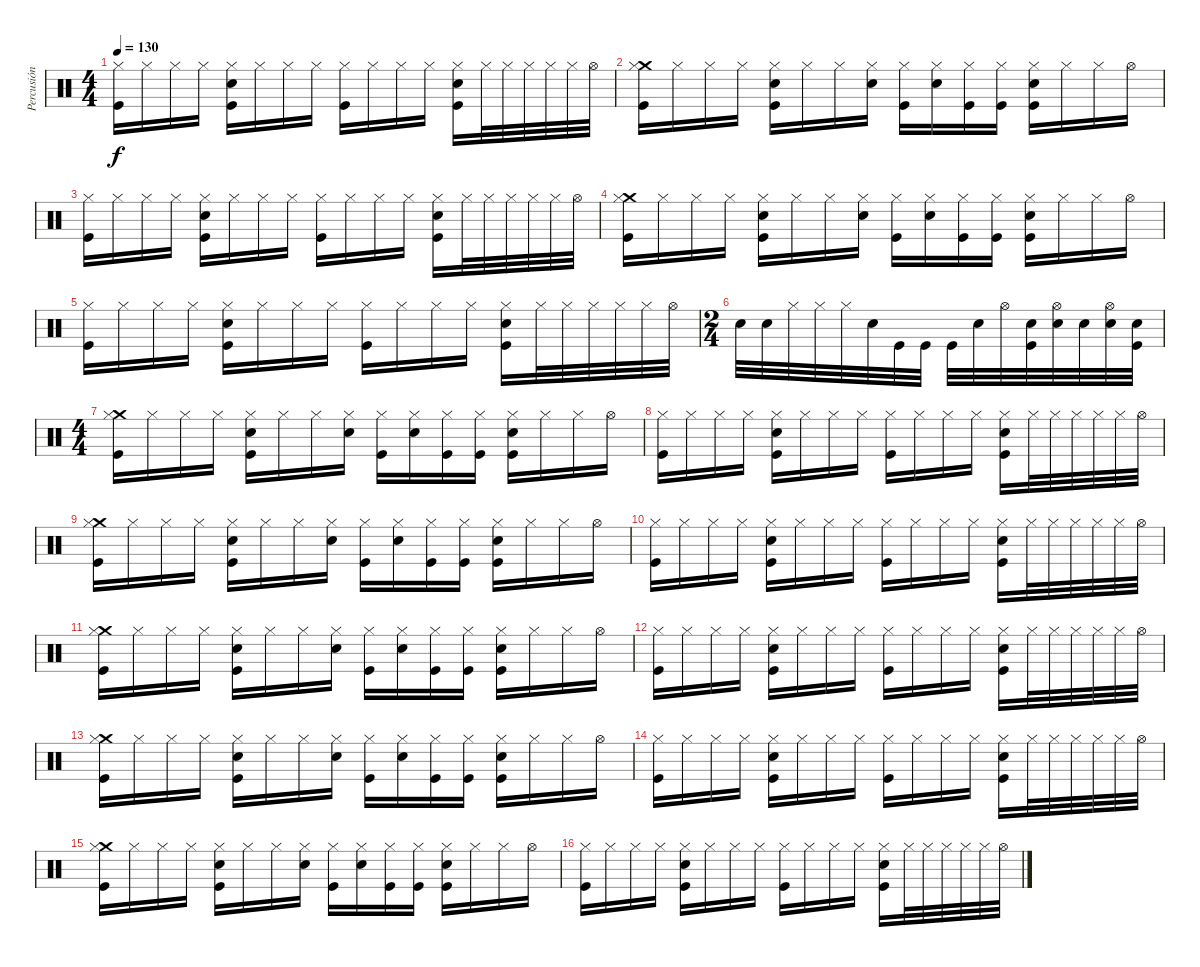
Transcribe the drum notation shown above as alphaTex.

\track ("Percusión" "Percusión") {instrument percussion}
\staff {score}
\articulation defaults
\ts (4 4)
\tempo 130
\clef neutral
\ks c
("Kick (hit)" "Hi-Hat (closed)").16{dy f} "Hi-Hat (closed)".16 "Hi-Hat (closed)".16 "Hi-Hat (closed)".16 ("Kick (hit)" "Snare (hit) 2" "Hi-Hat (closed)").16 "Hi-Hat (closed)".16 "Hi-Hat (closed)".16 "Hi-Hat (closed)".16 ("Kick (hit)" "Hi-Hat (closed)").16 "Hi-Hat (closed)".16 "Hi-Hat (closed)".16 "Hi-Hat (closed)".16 ("Kick (hit)" "Snare (hit) 2" "Hi-Hat (closed)").16 "Hi-Hat (closed)".32 "Hi-Hat (closed)".32 "Hi-Hat (closed)".32 "Hi-Hat (closed)".32 "Hi-Hat (closed)".32 "Hi-Hat (open)".32 |
("Kick (hit)" "Crash medium (hit)" "Hi-Hat (closed)").16 "Hi-Hat (closed)".16 "Hi-Hat (closed)".16 "Hi-Hat (closed)".16 ("Kick (hit)" "Snare (hit) 2" "Hi-Hat (closed)").16 "Hi-Hat (closed)".16 "Hi-Hat (closed)".16 ("Snare (hit) 2" "Hi-Hat (closed)").16 ("Kick (hit)" "Hi-Hat (closed)").16 ("Snare (hit) 2" "Hi-Hat (closed)").16 ("Kick (hit)" "Hi-Hat (closed)").16 ("Kick (hit)" "Hi-Hat (closed)").16 ("Kick (hit)" "Snare (hit) 2" "Hi-Hat (closed)").16 "Hi-Hat (closed)".16 "Hi-Hat (closed)".16 "Hi-Hat (open)".16 |
("Kick (hit)" "Hi-Hat (closed)").16 "Hi-Hat (closed)".16 "Hi-Hat (closed)".16 "Hi-Hat (closed)".16 ("Kick (hit)" "Snare (hit) 2" "Hi-Hat (closed)").16 "Hi-Hat (closed)".16 "Hi-Hat (closed)".16 "Hi-Hat (closed)".16 ("Kick (hit)" "Hi-Hat (closed)").16 "Hi-Hat (closed)".16 "Hi-Hat (closed)".16 "Hi-Hat (closed)".16 ("Kick (hit)" "Snare (hit) 2" "Hi-Hat (closed)").16 "Hi-Hat (closed)".32 "Hi-Hat (closed)".32 "Hi-Hat (closed)".32 "Hi-Hat (closed)".32 "Hi-Hat (closed)".32 "Hi-Hat (open)".32 |
("Kick (hit)" "Crash medium (hit)" "Hi-Hat (closed)").16 "Hi-Hat (closed)".16 "Hi-Hat (closed)".16 "Hi-Hat (closed)".16 ("Kick (hit)" "Snare (hit) 2" "Hi-Hat (closed)").16 "Hi-Hat (closed)".16 "Hi-Hat (closed)".16 ("Snare (hit) 2" "Hi-Hat (closed)").16 ("Kick (hit)" "Hi-Hat (closed)").16 ("Snare (hit) 2" "Hi-Hat (closed)").16 ("Kick (hit)" "Hi-Hat (closed)").16 ("Kick (hit)" "Hi-Hat (closed)").16 ("Kick (hit)" "Snare (hit) 2" "Hi-Hat (closed)").16 "Hi-Hat (closed)".16 "Hi-Hat (closed)".16 "Hi-Hat (open)".16 |
("Kick (hit)" "Hi-Hat (closed)").16 "Hi-Hat (closed)".16 "Hi-Hat (closed)".16 "Hi-Hat (closed)".16 ("Kick (hit)" "Snare (hit) 2" "Hi-Hat (closed)").16 "Hi-Hat (closed)".16 "Hi-Hat (closed)".16 "Hi-Hat (closed)".16 ("Kick (hit)" "Hi-Hat (closed)").16 "Hi-Hat (closed)".16 "Hi-Hat (closed)".16 "Hi-Hat (closed)".16 ("Kick (hit)" "Snare (hit) 2" "Hi-Hat (closed)").16 "Hi-Hat (closed)".32 "Hi-Hat (closed)".32 "Hi-Hat (closed)".32 "Hi-Hat (closed)".32 "Hi-Hat (closed)".32 "Hi-Hat (open)".32 |
\ts (2 4)
"Snare (hit) 2".32 "Snare (hit) 2".32 "Hi-Hat (closed)".32 "Hi-Hat (closed)".32 "Hi-Hat (closed)".32 "Snare (hit) 2".32 "Kick (hit)".32 "Kick (hit)".32 "Kick (hit)".32 "Snare (hit) 2".32 "Hi-Hat (open)".32 ("Kick (hit)" "Snare (hit) 2").32 ("Snare (hit) 2" "Hi-Hat (open)").32 "Snare (hit) 2".32 ("Snare (hit) 2" "Hi-Hat (open)").32 ("Kick (hit)" "Snare (hit) 2").32 |
\ts (4 4)
("Kick (hit)" "Crash medium (hit)" "Hi-Hat (closed)").16 "Hi-Hat (closed)".16 "Hi-Hat (closed)".16 "Hi-Hat (closed)".16 ("Kick (hit)" "Snare (hit) 2" "Hi-Hat (closed)").16 "Hi-Hat (closed)".16 "Hi-Hat (closed)".16 ("Snare (hit) 2" "Hi-Hat (closed)").16 ("Kick (hit)" "Hi-Hat (closed)").16 ("Snare (hit) 2" "Hi-Hat (closed)").16 ("Kick (hit)" "Hi-Hat (closed)").16 ("Kick (hit)" "Hi-Hat (closed)").16 ("Kick (hit)" "Snare (hit) 2" "Hi-Hat (closed)").16 "Hi-Hat (closed)".16 "Hi-Hat (closed)".16 "Hi-Hat (open)".16 |
("Kick (hit)" "Hi-Hat (closed)").16 "Hi-Hat (closed)".16 "Hi-Hat (closed)".16 "Hi-Hat (closed)".16 ("Kick (hit)" "Snare (hit) 2" "Hi-Hat (closed)").16 "Hi-Hat (closed)".16 "Hi-Hat (closed)".16 "Hi-Hat (closed)".16 ("Kick (hit)" "Hi-Hat (closed)").16 "Hi-Hat (closed)".16 "Hi-Hat (closed)".16 "Hi-Hat (closed)".16 ("Kick (hit)" "Snare (hit) 2" "Hi-Hat (closed)").16 "Hi-Hat (closed)".32 "Hi-Hat (closed)".32 "Hi-Hat (closed)".32 "Hi-Hat (closed)".32 "Hi-Hat (closed)".32 "Hi-Hat (open)".32 |
("Kick (hit)" "Crash medium (hit)" "Hi-Hat (closed)").16 "Hi-Hat (closed)".16 "Hi-Hat (closed)".16 "Hi-Hat (closed)".16 ("Kick (hit)" "Snare (hit) 2" "Hi-Hat (closed)").16 "Hi-Hat (closed)".16 "Hi-Hat (closed)".16 ("Snare (hit) 2" "Hi-Hat (closed)").16 ("Kick (hit)" "Hi-Hat (closed)").16 ("Snare (hit) 2" "Hi-Hat (closed)").16 ("Kick (hit)" "Hi-Hat (closed)").16 ("Kick (hit)" "Hi-Hat (closed)").16 ("Kick (hit)" "Snare (hit) 2" "Hi-Hat (closed)").16 "Hi-Hat (closed)".16 "Hi-Hat (closed)".16 "Hi-Hat (open)".16 |
("Kick (hit)" "Hi-Hat (closed)").16 "Hi-Hat (closed)".16 "Hi-Hat (closed)".16 "Hi-Hat (closed)".16 ("Kick (hit)" "Snare (hit) 2" "Hi-Hat (closed)").16 "Hi-Hat (closed)".16 "Hi-Hat (closed)".16 "Hi-Hat (closed)".16 ("Kick (hit)" "Hi-Hat (closed)").16 "Hi-Hat (closed)".16 "Hi-Hat (closed)".16 "Hi-Hat (closed)".16 ("Kick (hit)" "Snare (hit) 2" "Hi-Hat (closed)").16 "Hi-Hat (closed)".32 "Hi-Hat (closed)".32 "Hi-Hat (closed)".32 "Hi-Hat (closed)".32 "Hi-Hat (closed)".32 "Hi-Hat (open)".32 |
("Kick (hit)" "Crash medium (hit)" "Hi-Hat (closed)").16 "Hi-Hat (closed)".16 "Hi-Hat (closed)".16 "Hi-Hat (closed)".16 ("Kick (hit)" "Snare (hit) 2" "Hi-Hat (closed)").16 "Hi-Hat (closed)".16 "Hi-Hat (closed)".16 ("Snare (hit) 2" "Hi-Hat (closed)").16 ("Kick (hit)" "Hi-Hat (closed)").16 ("Snare (hit) 2" "Hi-Hat (closed)").16 ("Kick (hit)" "Hi-Hat (closed)").16 ("Kick (hit)" "Hi-Hat (closed)").16 ("Kick (hit)" "Snare (hit) 2" "Hi-Hat (closed)").16 "Hi-Hat (closed)".16 "Hi-Hat (closed)".16 "Hi-Hat (open)".16 |
("Kick (hit)" "Hi-Hat (closed)").16 "Hi-Hat (closed)".16 "Hi-Hat (closed)".16 "Hi-Hat (closed)".16 ("Kick (hit)" "Snare (hit) 2" "Hi-Hat (closed)").16 "Hi-Hat (closed)".16 "Hi-Hat (closed)".16 "Hi-Hat (closed)".16 ("Kick (hit)" "Hi-Hat (closed)").16 "Hi-Hat (closed)".16 "Hi-Hat (closed)".16 "Hi-Hat (closed)".16 ("Kick (hit)" "Snare (hit) 2" "Hi-Hat (closed)").16 "Hi-Hat (closed)".32 "Hi-Hat (closed)".32 "Hi-Hat (closed)".32 "Hi-Hat (closed)".32 "Hi-Hat (closed)".32 "Hi-Hat (open)".32 |
("Kick (hit)" "Crash medium (hit)" "Hi-Hat (closed)").16 "Hi-Hat (closed)".16 "Hi-Hat (closed)".16 "Hi-Hat (closed)".16 ("Kick (hit)" "Snare (hit) 2" "Hi-Hat (closed)").16 "Hi-Hat (closed)".16 "Hi-Hat (closed)".16 ("Snare (hit) 2" "Hi-Hat (closed)").16 ("Kick (hit)" "Hi-Hat (closed)").16 ("Snare (hit) 2" "Hi-Hat (closed)").16 ("Kick (hit)" "Hi-Hat (closed)").16 ("Kick (hit)" "Hi-Hat (closed)").16 ("Kick (hit)" "Snare (hit) 2" "Hi-Hat (closed)").16 "Hi-Hat (closed)".16 "Hi-Hat (closed)".16 "Hi-Hat (open)".16 |
("Kick (hit)" "Hi-Hat (closed)").16 "Hi-Hat (closed)".16 "Hi-Hat (closed)".16 "Hi-Hat (closed)".16 ("Kick (hit)" "Snare (hit) 2" "Hi-Hat (closed)").16 "Hi-Hat (closed)".16 "Hi-Hat (closed)".16 "Hi-Hat (closed)".16 ("Kick (hit)" "Hi-Hat (closed)").16 "Hi-Hat (closed)".16 "Hi-Hat (closed)".16 "Hi-Hat (closed)".16 ("Kick (hit)" "Snare (hit) 2" "Hi-Hat (closed)").16 "Hi-Hat (closed)".32 "Hi-Hat (closed)".32 "Hi-Hat (closed)".32 "Hi-Hat (closed)".32 "Hi-Hat (closed)".32 "Hi-Hat (open)".32 |
("Kick (hit)" "Crash medium (hit)" "Hi-Hat (closed)").16 "Hi-Hat (closed)".16 "Hi-Hat (closed)".16 "Hi-Hat (closed)".16 ("Kick (hit)" "Snare (hit) 2" "Hi-Hat (closed)").16 "Hi-Hat (closed)".16 "Hi-Hat (closed)".16 ("Snare (hit) 2" "Hi-Hat (closed)").16 ("Kick (hit)" "Hi-Hat (closed)").16 ("Snare (hit) 2" "Hi-Hat (closed)").16 ("Kick (hit)" "Hi-Hat (closed)").16 ("Kick (hit)" "Hi-Hat (closed)").16 ("Kick (hit)" "Snare (hit) 2" "Hi-Hat (closed)").16 "Hi-Hat (closed)".16 "Hi-Hat (closed)".16 "Hi-Hat (open)".16 |
("Kick (hit)" "Hi-Hat (closed)").16 "Hi-Hat (closed)".16 "Hi-Hat (closed)".16 "Hi-Hat (closed)".16 ("Kick (hit)" "Snare (hit) 2" "Hi-Hat (closed)").16 "Hi-Hat (closed)".16 "Hi-Hat (closed)".16 "Hi-Hat (closed)".16 ("Kick (hit)" "Hi-Hat (closed)").16 "Hi-Hat (closed)".16 "Hi-Hat (closed)".16 "Hi-Hat (closed)".16 ("Kick (hit)" "Snare (hit) 2" "Hi-Hat (closed)").16 "Hi-Hat (closed)".32 "Hi-Hat (closed)".32 "Hi-Hat (closed)".32 "Hi-Hat (closed)".32 "Hi-Hat (closed)".32 "Hi-Hat (open)".32
